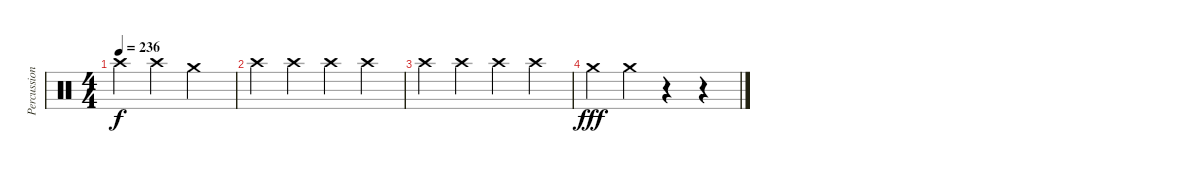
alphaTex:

\track ("Percussions" "Percussion") {instrument percussion}
\staff {score}
\articulation defaults
\ts (4 4)
\tempo 236
\clef neutral
\ks c "Crash high (hit)".4{dy f} "Crash high (hit)".4 "Crash medium (hit)".2
|
"Crash high (hit)".4 "Crash high (hit)".4 "Crash high (hit)".4 "Crash high (hit)".4 |
"Crash high (hit)".4 "Crash high (hit)".4 "Crash high (hit)".4 "Crash high (hit)".4 |
"Crash medium (hit)".4{dy fff} "Crash medium (hit)".4 r.4 r.4
